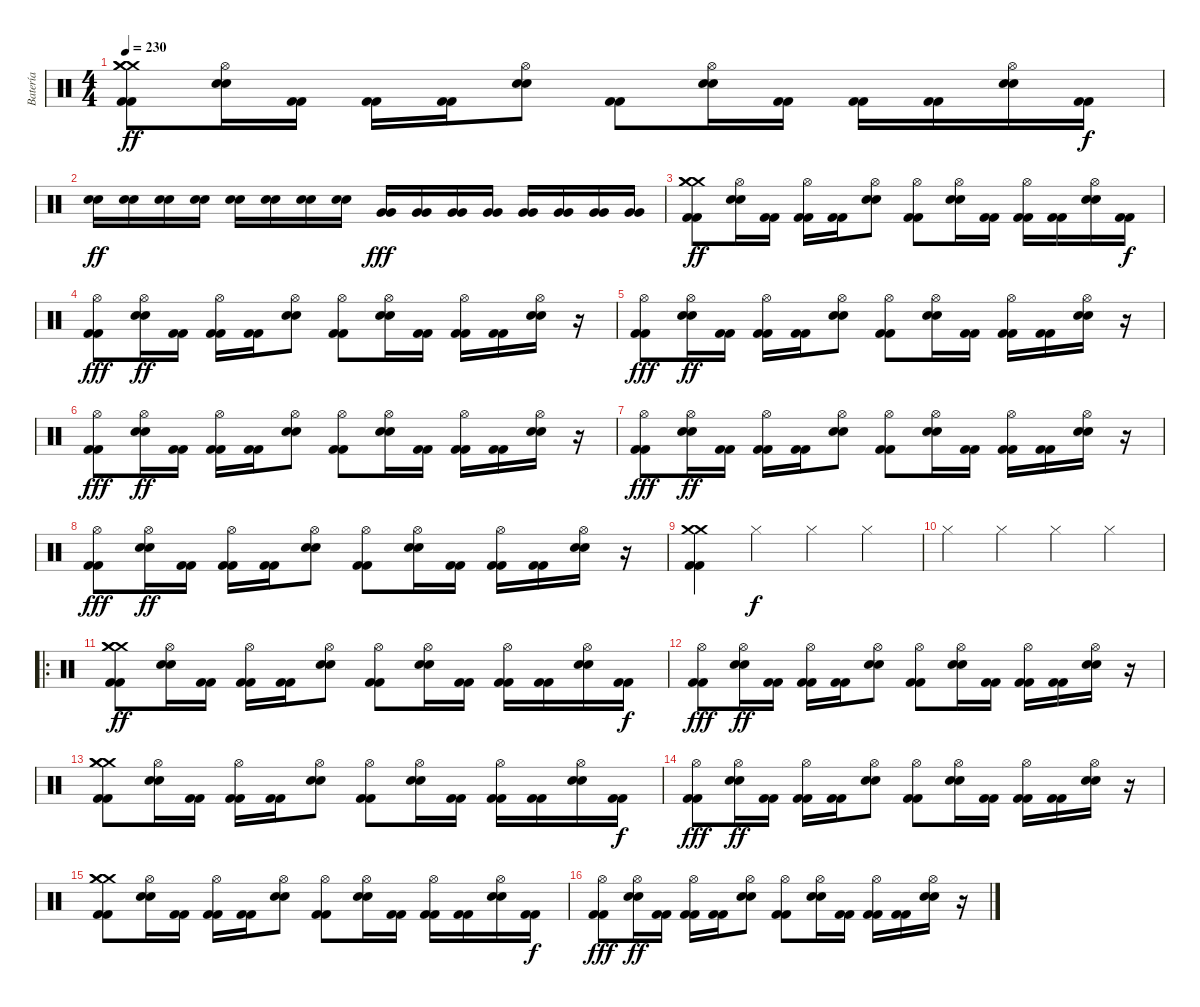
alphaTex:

\track ("Batería" "Batería") {instrument percussion}
\staff {score}
\articulation defaults
\ts (4 4)
\tempo 230
\clef neutral
\ks c
("Crash medium (hit)" "Crash medium (hit)" "Crash medium (hit)" "Kick (hit) 2" "Kick (hit) 2").8{dy ff} ("Hi-Hat (open)" "Electric Snare (hit)" "Electric Snare (hit)").16 ("Kick (hit) 2" "Kick (hit) 2").16 ("Kick (hit) 2" "Kick (hit) 2").16 ("Kick (hit) 2" "Kick (hit) 2").16 ("Hi-Hat (open)" "Electric Snare (hit)" "Electric Snare (hit)").8 ("Kick (hit) 2" "Kick (hit) 2").8 ("Hi-Hat (open)" "Electric Snare (hit)" "Electric Snare (hit)").16 ("Kick (hit) 2" "Kick (hit) 2").16 ("Kick (hit) 2" "Kick (hit) 2").16 ("Kick (hit) 2" "Kick (hit) 2").16 ("Hi-Hat (open)" "Electric Snare (hit)" "Electric Snare (hit)").16 ("Kick (hit) 2" "Kick (hit) 2").16{dy f} |
("Electric Snare (hit)" "Electric Snare (hit)").16{dy ff} ("Electric Snare (hit)" "Electric Snare (hit)").16 ("Electric Snare (hit)" "Electric Snare (hit)").16 ("Electric Snare (hit)" "Electric Snare (hit)").16 ("Electric Snare (hit)" "Electric Snare (hit)").16 ("Electric Snare (hit)" "Electric Snare (hit)").16 ("Electric Snare (hit)" "Electric Snare (hit)").16 ("Electric Snare (hit)" "Electric Snare (hit)").16 ("Very Low Tom (hit)" "Very Low Tom (hit)").16{dy fff} ("Very Low Tom (hit)" "Very Low Tom (hit)").16 ("Very Low Tom (hit)" "Very Low Tom (hit)").16 ("Very Low Tom (hit)" "Very Low Tom (hit)").16 ("Very Low Tom (hit)" "Very Low Tom (hit)").16 ("Very Low Tom (hit)" "Very Low Tom (hit)").16 ("Very Low Tom (hit)" "Very Low Tom (hit)").16 ("Very Low Tom (hit)" "Very Low Tom (hit)").16 |
("Crash medium (hit)" "Crash medium (hit)" "Crash medium (hit)" "Kick (hit) 2" "Kick (hit) 2").8{dy ff} ("Hi-Hat (open)" "Electric Snare (hit)" "Electric Snare (hit)").16 ("Kick (hit) 2" "Kick (hit) 2").16 ("Hi-Hat (open)" "Kick (hit) 2" "Kick (hit) 2").16 ("Kick (hit) 2" "Kick (hit) 2").16 ("Hi-Hat (open)" "Electric Snare (hit)" "Electric Snare (hit)").8 ("Hi-Hat (open)" "Kick (hit) 2" "Kick (hit) 2").8 ("Hi-Hat (open)" "Electric Snare (hit)" "Electric Snare (hit)").16 ("Kick (hit) 2" "Kick (hit) 2").16 ("Hi-Hat (open)" "Kick (hit) 2" "Kick (hit) 2").16 ("Kick (hit) 2" "Kick (hit) 2").16 ("Hi-Hat (open)" "Electric Snare (hit)" "Electric Snare (hit)").16 ("Kick (hit) 2" "Kick (hit) 2").16{dy f} |
("Hi-Hat (open)" "Kick (hit) 2" "Kick (hit) 2").8{dy fff} ("Hi-Hat (open)" "Electric Snare (hit)" "Electric Snare (hit)").16{dy ff} ("Kick (hit) 2" "Kick (hit) 2").16 ("Hi-Hat (open)" "Kick (hit) 2" "Kick (hit) 2").16 ("Kick (hit) 2" "Kick (hit) 2").16 ("Hi-Hat (open)" "Electric Snare (hit)" "Electric Snare (hit)").8 ("Hi-Hat (open)" "Kick (hit) 2" "Kick (hit) 2").8 ("Hi-Hat (open)" "Electric Snare (hit)" "Electric Snare (hit)").16 ("Kick (hit) 2" "Kick (hit) 2").16 ("Hi-Hat (open)" "Kick (hit) 2" "Kick (hit) 2").16 ("Kick (hit) 2" "Kick (hit) 2").16 ("Hi-Hat (open)" "Electric Snare (hit)" "Electric Snare (hit)").16 r.16 |
("Hi-Hat (open)" "Kick (hit) 2" "Kick (hit) 2").8{dy fff} ("Hi-Hat (open)" "Electric Snare (hit)" "Electric Snare (hit)").16{dy ff} ("Kick (hit) 2" "Kick (hit) 2").16 ("Hi-Hat (open)" "Kick (hit) 2" "Kick (hit) 2").16 ("Kick (hit) 2" "Kick (hit) 2").16 ("Hi-Hat (open)" "Electric Snare (hit)" "Electric Snare (hit)").8 ("Hi-Hat (open)" "Kick (hit) 2" "Kick (hit) 2").8 ("Hi-Hat (open)" "Electric Snare (hit)" "Electric Snare (hit)").16 ("Kick (hit) 2" "Kick (hit) 2").16 ("Hi-Hat (open)" "Kick (hit) 2" "Kick (hit) 2").16 ("Kick (hit) 2" "Kick (hit) 2").16 ("Hi-Hat (open)" "Electric Snare (hit)" "Electric Snare (hit)").16 r.16 |
("Hi-Hat (open)" "Kick (hit) 2" "Kick (hit) 2").8{dy fff} ("Hi-Hat (open)" "Electric Snare (hit)" "Electric Snare (hit)").16{dy ff} ("Kick (hit) 2" "Kick (hit) 2").16 ("Hi-Hat (open)" "Kick (hit) 2" "Kick (hit) 2").16 ("Kick (hit) 2" "Kick (hit) 2").16 ("Hi-Hat (open)" "Electric Snare (hit)" "Electric Snare (hit)").8 ("Hi-Hat (open)" "Kick (hit) 2" "Kick (hit) 2").8 ("Hi-Hat (open)" "Electric Snare (hit)" "Electric Snare (hit)").16 ("Kick (hit) 2" "Kick (hit) 2").16 ("Hi-Hat (open)" "Kick (hit) 2" "Kick (hit) 2").16 ("Kick (hit) 2" "Kick (hit) 2").16 ("Hi-Hat (open)" "Electric Snare (hit)" "Electric Snare (hit)").16 r.16 |
("Hi-Hat (open)" "Kick (hit) 2" "Kick (hit) 2").8{dy fff} ("Hi-Hat (open)" "Electric Snare (hit)" "Electric Snare (hit)").16{dy ff} ("Kick (hit) 2" "Kick (hit) 2").16 ("Hi-Hat (open)" "Kick (hit) 2" "Kick (hit) 2").16 ("Kick (hit) 2" "Kick (hit) 2").16 ("Hi-Hat (open)" "Electric Snare (hit)" "Electric Snare (hit)").8 ("Hi-Hat (open)" "Kick (hit) 2" "Kick (hit) 2").8 ("Hi-Hat (open)" "Electric Snare (hit)" "Electric Snare (hit)").16 ("Kick (hit) 2" "Kick (hit) 2").16 ("Hi-Hat (open)" "Kick (hit) 2" "Kick (hit) 2").16 ("Kick (hit) 2" "Kick (hit) 2").16 ("Hi-Hat (open)" "Electric Snare (hit)" "Electric Snare (hit)").16 r.16 |
("Hi-Hat (open)" "Kick (hit) 2" "Kick (hit) 2").8{dy fff} ("Hi-Hat (open)" "Electric Snare (hit)" "Electric Snare (hit)").16{dy ff} ("Kick (hit) 2" "Kick (hit) 2").16 ("Hi-Hat (open)" "Kick (hit) 2" "Kick (hit) 2").16 ("Kick (hit) 2" "Kick (hit) 2").16 ("Hi-Hat (open)" "Electric Snare (hit)" "Electric Snare (hit)").8 ("Hi-Hat (open)" "Kick (hit) 2" "Kick (hit) 2").8 ("Hi-Hat (open)" "Electric Snare (hit)" "Electric Snare (hit)").16 ("Kick (hit) 2" "Kick (hit) 2").16 ("Hi-Hat (open)" "Kick (hit) 2" "Kick (hit) 2").16 ("Kick (hit) 2" "Kick (hit) 2").16 ("Hi-Hat (open)" "Electric Snare (hit)" "Electric Snare (hit)").16 r.16 |
("Crash medium (hit)" "Crash medium (hit)" "Kick (hit) 2" "Kick (hit) 2").4 "Hi-Hat (closed)".4{dy f} "Hi-Hat (closed)".4 "Hi-Hat (closed)".4 |
"Hi-Hat (closed)".4 "Hi-Hat (closed)".4 "Hi-Hat (closed)".4 "Hi-Hat (closed)".4 |
\ro
("Crash medium (hit)" "Crash medium (hit)" "Crash medium (hit)" "Kick (hit) 2" "Kick (hit) 2").8{dy ff} ("Hi-Hat (open)" "Electric Snare (hit)" "Electric Snare (hit)").16 ("Kick (hit) 2" "Kick (hit) 2").16 ("Hi-Hat (open)" "Kick (hit) 2" "Kick (hit) 2").16 ("Kick (hit) 2" "Kick (hit) 2").16 ("Hi-Hat (open)" "Electric Snare (hit)" "Electric Snare (hit)").8 ("Hi-Hat (open)" "Kick (hit) 2" "Kick (hit) 2").8 ("Hi-Hat (open)" "Electric Snare (hit)" "Electric Snare (hit)").16 ("Kick (hit) 2" "Kick (hit) 2").16 ("Hi-Hat (open)" "Kick (hit) 2" "Kick (hit) 2").16 ("Kick (hit) 2" "Kick (hit) 2").16 ("Hi-Hat (open)" "Electric Snare (hit)" "Electric Snare (hit)").16 ("Kick (hit) 2" "Kick (hit) 2").16{dy f} |
("Hi-Hat (open)" "Kick (hit) 2" "Kick (hit) 2").8{dy fff} ("Hi-Hat (open)" "Electric Snare (hit)" "Electric Snare (hit)").16{dy ff} ("Kick (hit) 2" "Kick (hit) 2").16 ("Hi-Hat (open)" "Kick (hit) 2" "Kick (hit) 2").16 ("Kick (hit) 2" "Kick (hit) 2").16 ("Hi-Hat (open)" "Electric Snare (hit)" "Electric Snare (hit)").8 ("Hi-Hat (open)" "Kick (hit) 2" "Kick (hit) 2").8 ("Hi-Hat (open)" "Electric Snare (hit)" "Electric Snare (hit)").16 ("Kick (hit) 2" "Kick (hit) 2").16 ("Hi-Hat (open)" "Kick (hit) 2" "Kick (hit) 2").16 ("Kick (hit) 2" "Kick (hit) 2").16 ("Hi-Hat (open)" "Electric Snare (hit)" "Electric Snare (hit)").16 r.16 |
("Crash medium (hit)" "Crash medium (hit)" "Crash medium (hit)" "Kick (hit) 2" "Kick (hit) 2").8 ("Hi-Hat (open)" "Electric Snare (hit)" "Electric Snare (hit)").16 ("Kick (hit) 2" "Kick (hit) 2").16 ("Hi-Hat (open)" "Kick (hit) 2" "Kick (hit) 2").16 ("Kick (hit) 2" "Kick (hit) 2").16 ("Hi-Hat (open)" "Electric Snare (hit)" "Electric Snare (hit)").8 ("Hi-Hat (open)" "Kick (hit) 2" "Kick (hit) 2").8 ("Hi-Hat (open)" "Electric Snare (hit)" "Electric Snare (hit)").16 ("Kick (hit) 2" "Kick (hit) 2").16 ("Hi-Hat (open)" "Kick (hit) 2" "Kick (hit) 2").16 ("Kick (hit) 2" "Kick (hit) 2").16 ("Hi-Hat (open)" "Electric Snare (hit)" "Electric Snare (hit)").16 ("Kick (hit) 2" "Kick (hit) 2").16{dy f} |
("Hi-Hat (open)" "Kick (hit) 2" "Kick (hit) 2").8{dy fff} ("Hi-Hat (open)" "Electric Snare (hit)" "Electric Snare (hit)").16{dy ff} ("Kick (hit) 2" "Kick (hit) 2").16 ("Hi-Hat (open)" "Kick (hit) 2" "Kick (hit) 2").16 ("Kick (hit) 2" "Kick (hit) 2").16 ("Hi-Hat (open)" "Electric Snare (hit)" "Electric Snare (hit)").8 ("Hi-Hat (open)" "Kick (hit) 2" "Kick (hit) 2").8 ("Hi-Hat (open)" "Electric Snare (hit)" "Electric Snare (hit)").16 ("Kick (hit) 2" "Kick (hit) 2").16 ("Hi-Hat (open)" "Kick (hit) 2" "Kick (hit) 2").16 ("Kick (hit) 2" "Kick (hit) 2").16 ("Hi-Hat (open)" "Electric Snare (hit)" "Electric Snare (hit)").16 r.16 |
("Crash medium (hit)" "Crash medium (hit)" "Crash medium (hit)" "Kick (hit) 2" "Kick (hit) 2").8 ("Hi-Hat (open)" "Electric Snare (hit)" "Electric Snare (hit)").16 ("Kick (hit) 2" "Kick (hit) 2").16 ("Hi-Hat (open)" "Kick (hit) 2" "Kick (hit) 2").16 ("Kick (hit) 2" "Kick (hit) 2").16 ("Hi-Hat (open)" "Electric Snare (hit)" "Electric Snare (hit)").8 ("Hi-Hat (open)" "Kick (hit) 2" "Kick (hit) 2").8 ("Hi-Hat (open)" "Electric Snare (hit)" "Electric Snare (hit)").16 ("Kick (hit) 2" "Kick (hit) 2").16 ("Hi-Hat (open)" "Kick (hit) 2" "Kick (hit) 2").16 ("Kick (hit) 2" "Kick (hit) 2").16 ("Hi-Hat (open)" "Electric Snare (hit)" "Electric Snare (hit)").16 ("Kick (hit) 2" "Kick (hit) 2").16{dy f} |
("Hi-Hat (open)" "Kick (hit) 2" "Kick (hit) 2").8{dy fff} ("Hi-Hat (open)" "Electric Snare (hit)" "Electric Snare (hit)").16{dy ff} ("Kick (hit) 2" "Kick (hit) 2").16 ("Hi-Hat (open)" "Kick (hit) 2" "Kick (hit) 2").16 ("Kick (hit) 2" "Kick (hit) 2").16 ("Hi-Hat (open)" "Electric Snare (hit)" "Electric Snare (hit)").8 ("Hi-Hat (open)" "Kick (hit) 2" "Kick (hit) 2").8 ("Hi-Hat (open)" "Electric Snare (hit)" "Electric Snare (hit)").16 ("Kick (hit) 2" "Kick (hit) 2").16 ("Hi-Hat (open)" "Kick (hit) 2" "Kick (hit) 2").16 ("Kick (hit) 2" "Kick (hit) 2").16 ("Hi-Hat (open)" "Electric Snare (hit)" "Electric Snare (hit)").16 r.16
